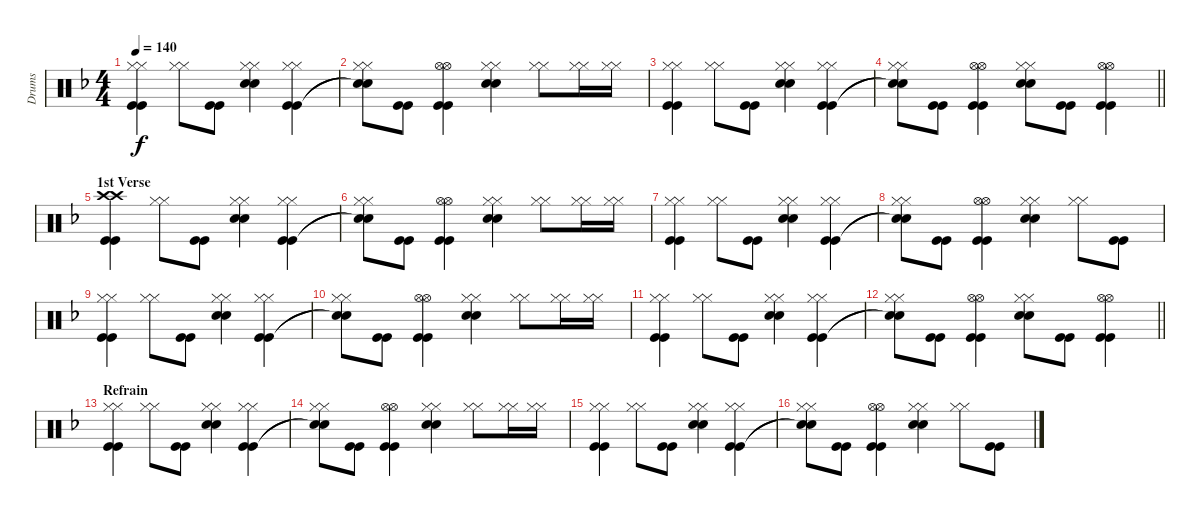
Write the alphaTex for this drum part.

\track ("Drums" "Drums") {instrument percussion}
\staff {score}
\articulation defaults
\ts (4 4)
\tempo 140
\clef neutral
\ks f
("Hi-Hat (closed)" "Hi-Hat (closed)" "Kick (hit)" "Kick (hit)").4{dy f} ("Hi-Hat (closed)" "Hi-Hat (closed)").8 ("Kick (hit)" "Kick (hit)").8 ("Hi-Hat (closed)" "Hi-Hat (closed)" "Snare (hit) 2" "Snare (hit) 2").4 ("Hi-Hat (closed)" "Hi-Hat (closed)" "Kick (hit)" "Kick (hit)").4 |
("Hi-Hat (closed)" "Hi-Hat (closed)" "Snare (hit)"{t} "Snare (hit)"{t}).8 ("Kick (hit)" "Kick (hit)").8 ("Hi-Hat (open)" "Hi-Hat (open)" "Kick (hit)" "Kick (hit)").4 ("Hi-Hat (closed)" "Hi-Hat (closed)" "Snare (hit) 2" "Snare (hit) 2").4 ("Hi-Hat (closed)" "Hi-Hat (closed)").8 ("Hi-Hat (closed)" "Hi-Hat (closed)").16 ("Hi-Hat (closed)" "Hi-Hat (closed)").16 |
("Hi-Hat (closed)" "Hi-Hat (closed)" "Kick (hit)" "Kick (hit)").4 ("Hi-Hat (closed)" "Hi-Hat (closed)").8 ("Kick (hit)" "Kick (hit)").8 ("Hi-Hat (closed)" "Hi-Hat (closed)" "Snare (hit) 2" "Snare (hit) 2").4 ("Hi-Hat (closed)" "Hi-Hat (closed)" "Kick (hit)" "Kick (hit)").4 |
\barLineRight lightlight
("Hi-Hat (closed)" "Hi-Hat (closed)" "Snare (hit)"{t} "Snare (hit)"{t}).8 ("Kick (hit)" "Kick (hit)").8 ("Hi-Hat (open)" "Hi-Hat (open)" "Kick (hit)" "Kick (hit)").4 ("Hi-Hat (closed)" "Hi-Hat (closed)" "Snare (hit) 2" "Snare (hit) 2").8 ("Kick (hit)" "Kick (hit)").8 ("Hi-Hat (open)" "Hi-Hat (open)" "Kick (hit)" "Kick (hit)").4 |
\section ("" "1st Verse")
("Crash high (hit)" "Crash high (hit)" "Kick (hit)" "Kick (hit)").4 ("Hi-Hat (closed)" "Hi-Hat (closed)").8 ("Kick (hit)" "Kick (hit)").8 ("Hi-Hat (closed)" "Hi-Hat (closed)" "Snare (hit) 2" "Snare (hit) 2").4 ("Hi-Hat (closed)" "Hi-Hat (closed)" "Kick (hit)" "Kick (hit)").4 |
("Hi-Hat (closed)" "Hi-Hat (closed)" "Snare (hit)"{t} "Snare (hit)"{t}).8 ("Kick (hit)" "Kick (hit)").8 ("Hi-Hat (open)" "Hi-Hat (open)" "Kick (hit)" "Kick (hit)").4 ("Hi-Hat (closed)" "Hi-Hat (closed)" "Snare (hit) 2" "Snare (hit) 2").4 ("Hi-Hat (closed)" "Hi-Hat (closed)").8 ("Hi-Hat (closed)" "Hi-Hat (closed)").16 ("Hi-Hat (closed)" "Hi-Hat (closed)").16 |
("Hi-Hat (closed)" "Hi-Hat (closed)" "Kick (hit)" "Kick (hit)").4 ("Hi-Hat (closed)" "Hi-Hat (closed)").8 ("Kick (hit)" "Kick (hit)").8 ("Hi-Hat (closed)" "Hi-Hat (closed)" "Snare (hit) 2" "Snare (hit) 2").4 ("Hi-Hat (closed)" "Hi-Hat (closed)" "Kick (hit)" "Kick (hit)").4 |
("Hi-Hat (closed)" "Hi-Hat (closed)" "Snare (hit)"{t} "Snare (hit)"{t}).8 ("Kick (hit)" "Kick (hit)").8 ("Hi-Hat (open)" "Hi-Hat (open)" "Kick (hit)" "Kick (hit)").4 ("Hi-Hat (closed)" "Hi-Hat (closed)" "Snare (hit) 2" "Snare (hit) 2").4 ("Hi-Hat (closed)" "Hi-Hat (closed)").8 ("Kick (hit)" "Kick (hit)").8 |
("Hi-Hat (closed)" "Hi-Hat (closed)" "Kick (hit)" "Kick (hit)").4 ("Hi-Hat (closed)" "Hi-Hat (closed)").8 ("Kick (hit)" "Kick (hit)").8 ("Hi-Hat (closed)" "Hi-Hat (closed)" "Snare (hit) 2" "Snare (hit) 2").4 ("Hi-Hat (closed)" "Hi-Hat (closed)" "Kick (hit)" "Kick (hit)").4 |
("Hi-Hat (closed)" "Hi-Hat (closed)" "Snare (hit)"{t} "Snare (hit)"{t}).8 ("Kick (hit)" "Kick (hit)").8 ("Hi-Hat (open)" "Hi-Hat (open)" "Kick (hit)" "Kick (hit)").4 ("Hi-Hat (closed)" "Hi-Hat (closed)" "Snare (hit) 2" "Snare (hit) 2").4 ("Hi-Hat (closed)" "Hi-Hat (closed)").8 ("Hi-Hat (closed)" "Hi-Hat (closed)").16 ("Hi-Hat (closed)" "Hi-Hat (closed)").16 |
("Hi-Hat (closed)" "Hi-Hat (closed)" "Kick (hit)" "Kick (hit)").4 ("Hi-Hat (closed)" "Hi-Hat (closed)").8 ("Kick (hit)" "Kick (hit)").8 ("Hi-Hat (closed)" "Hi-Hat (closed)" "Snare (hit) 2" "Snare (hit) 2").4 ("Hi-Hat (closed)" "Hi-Hat (closed)" "Kick (hit)" "Kick (hit)").4 |
\barLineRight lightlight
("Hi-Hat (closed)" "Hi-Hat (closed)" "Snare (hit)"{t} "Snare (hit)"{t}).8 ("Kick (hit)" "Kick (hit)").8 ("Hi-Hat (open)" "Hi-Hat (open)" "Kick (hit)" "Kick (hit)").4 ("Hi-Hat (closed)" "Hi-Hat (closed)" "Snare (hit) 2" "Snare (hit) 2").8 ("Kick (hit)" "Kick (hit)").8 ("Hi-Hat (open)" "Hi-Hat (open)" "Kick (hit)" "Kick (hit)").4 |
\section ("" "Refrain")
("Hi-Hat (closed)" "Hi-Hat (closed)" "Kick (hit)" "Kick (hit)").4 ("Hi-Hat (closed)" "Hi-Hat (closed)").8 ("Kick (hit)" "Kick (hit)").8 ("Hi-Hat (closed)" "Hi-Hat (closed)" "Snare (hit) 2" "Snare (hit) 2").4 ("Hi-Hat (closed)" "Hi-Hat (closed)" "Kick (hit)" "Kick (hit)").4 |
("Hi-Hat (closed)" "Hi-Hat (closed)" "Snare (hit)"{t} "Snare (hit)"{t}).8 ("Kick (hit)" "Kick (hit)").8 ("Hi-Hat (open)" "Hi-Hat (open)" "Kick (hit)" "Kick (hit)").4 ("Hi-Hat (closed)" "Hi-Hat (closed)" "Snare (hit) 2" "Snare (hit) 2").4 ("Hi-Hat (closed)" "Hi-Hat (closed)").8 ("Hi-Hat (closed)" "Hi-Hat (closed)").16 ("Hi-Hat (closed)" "Hi-Hat (closed)").16 |
("Hi-Hat (closed)" "Hi-Hat (closed)" "Kick (hit)" "Kick (hit)").4 ("Hi-Hat (closed)" "Hi-Hat (closed)").8 ("Kick (hit)" "Kick (hit)").8 ("Hi-Hat (closed)" "Hi-Hat (closed)" "Snare (hit) 2" "Snare (hit) 2").4 ("Hi-Hat (closed)" "Hi-Hat (closed)" "Kick (hit)" "Kick (hit)").4 |
("Hi-Hat (closed)" "Hi-Hat (closed)" "Snare (hit)"{t} "Snare (hit)"{t}).8 ("Kick (hit)" "Kick (hit)").8 ("Hi-Hat (open)" "Hi-Hat (open)" "Kick (hit)" "Kick (hit)").4 ("Hi-Hat (closed)" "Hi-Hat (closed)" "Snare (hit) 2" "Snare (hit) 2").4 ("Hi-Hat (closed)" "Hi-Hat (closed)").8 ("Kick (hit)" "Kick (hit)").8
